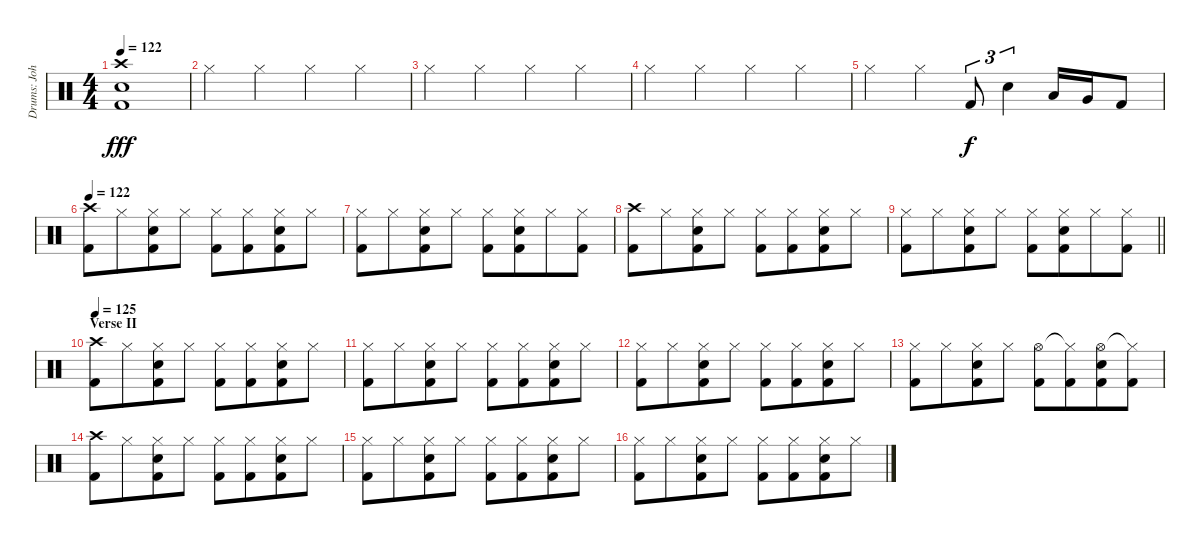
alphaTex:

\track ("Drums: John" "Drums: Joh") {instrument percussion}
\staff {score}
\articulation defaults
\ts (4 4)
\tempo 122
\clef neutral
\ks c
("Crash high (hit)" "Snare (hit) 2" "Kick (hit) 2").1{dy fff} |
"Hi-Hat (closed)".4 "Hi-Hat (closed)".4 "Hi-Hat (closed)".4 "Hi-Hat (closed)".4 |
"Hi-Hat (closed)".4 "Hi-Hat (closed)".4 "Hi-Hat (closed)".4 "Hi-Hat (closed)".4 |
"Hi-Hat (closed)".4 "Hi-Hat (closed)".4 "Hi-Hat (closed)".4 "Hi-Hat (closed)".4 |
"Hi-Hat (closed)".4 "Hi-Hat (closed)".4 "Kick (hit) 2".8{tu (3 2) dy f} "Electric Snare (hit)".4{tu (3 2)} "Low Tom (hit)".16 "Very Low Tom (hit)".16 "Kick (hit) 2".8 |
\tempo 122
("Crash high (hit)" "Kick (hit) 2").8 "Hi-Hat (closed)".8{beam merge} ("Hi-Hat (closed)" "Snare (hit) 2" "Kick (hit) 2").8 "Hi-Hat (closed)".8 ("Hi-Hat (closed)" "Kick (hit) 2").8 ("Hi-Hat (closed)" "Kick (hit) 2").8{beam merge} ("Hi-Hat (closed)" "Snare (hit) 2" "Kick (hit) 2").8 "Hi-Hat (closed)".8 |
("Hi-Hat (closed)" "Kick (hit) 2").8 "Hi-Hat (closed)".8{beam merge} ("Hi-Hat (closed)" "Snare (hit) 2" "Kick (hit) 2").8 "Hi-Hat (closed)".8 ("Hi-Hat (closed)" "Kick (hit) 2").8 ("Hi-Hat (closed)" "Snare (hit) 2" "Kick (hit) 2").8{beam merge} "Hi-Hat (closed)".8 ("Hi-Hat (closed)" "Kick (hit) 2").8 |
("Crash high (hit)" "Kick (hit) 2").8 "Hi-Hat (closed)".8{beam merge} ("Hi-Hat (closed)" "Snare (hit) 2" "Kick (hit) 2").8 "Hi-Hat (closed)".8 ("Hi-Hat (closed)" "Kick (hit) 2").8 ("Hi-Hat (closed)" "Kick (hit) 2").8{beam merge} ("Hi-Hat (closed)" "Snare (hit) 2" "Kick (hit) 2").8 "Hi-Hat (closed)".8 |
\barLineRight lightlight
("Hi-Hat (closed)" "Kick (hit) 2").8 "Hi-Hat (closed)".8{beam merge} ("Hi-Hat (closed)" "Snare (hit) 2" "Kick (hit) 2").8 "Hi-Hat (closed)".8 ("Hi-Hat (closed)" "Kick (hit) 2").8 ("Hi-Hat (closed)" "Snare (hit) 2" "Kick (hit) 2").8{beam merge} "Hi-Hat (closed)".8 ("Hi-Hat (closed)" "Kick (hit) 2").8 |
\section ("" "Verse II")
\tempo 125
("Crash high (hit)" "Kick (hit) 2").8 "Hi-Hat (closed)".8{beam merge} ("Hi-Hat (closed)" "Snare (hit) 2" "Kick (hit) 2").8 "Hi-Hat (closed)".8 ("Hi-Hat (closed)" "Kick (hit) 2").8 ("Hi-Hat (closed)" "Kick (hit) 2").8{beam merge} ("Hi-Hat (closed)" "Snare (hit) 2" "Kick (hit) 2").8 "Hi-Hat (closed)".8 |
("Hi-Hat (closed)" "Kick (hit) 2").8 "Hi-Hat (closed)".8{beam merge} ("Hi-Hat (closed)" "Snare (hit) 2" "Kick (hit) 2").8 "Hi-Hat (closed)".8 ("Hi-Hat (closed)" "Kick (hit) 2").8 ("Hi-Hat (closed)" "Kick (hit) 2").8{beam merge} ("Hi-Hat (closed)" "Snare (hit) 2" "Kick (hit) 2").8 "Hi-Hat (closed)".8 |
("Hi-Hat (closed)" "Kick (hit) 2").8 "Hi-Hat (closed)".8{beam merge} ("Hi-Hat (closed)" "Snare (hit) 2" "Kick (hit) 2").8 "Hi-Hat (closed)".8 ("Hi-Hat (closed)" "Kick (hit) 2").8 ("Hi-Hat (closed)" "Kick (hit) 2").8{beam merge} ("Hi-Hat (closed)" "Snare (hit) 2" "Kick (hit) 2").8 "Hi-Hat (closed)".8 |
("Hi-Hat (closed)" "Kick (hit) 2").8 "Hi-Hat (closed)".8{beam merge} ("Hi-Hat (closed)" "Snare (hit) 2" "Kick (hit) 2").8 "Hi-Hat (closed)".8 ("Hi-Hat (open)" "Kick (hit) 2").8 ("Hi-Hat (closed)"{t} "Kick (hit) 2").8{beam merge} ("Hi-Hat (open)" "Snare (hit) 2" "Kick (hit) 2").8 ("Hi-Hat (closed)"{t} "Kick (hit) 2").8 |
("Crash high (hit)" "Kick (hit) 2").8 "Hi-Hat (closed)".8{beam merge} ("Hi-Hat (closed)" "Snare (hit) 2" "Kick (hit) 2").8 "Hi-Hat (closed)".8 ("Hi-Hat (closed)" "Kick (hit) 2").8 ("Hi-Hat (closed)" "Kick (hit) 2").8{beam merge} ("Hi-Hat (closed)" "Snare (hit) 2" "Kick (hit) 2").8 "Hi-Hat (closed)".8 |
("Hi-Hat (closed)" "Kick (hit) 2").8 "Hi-Hat (closed)".8{beam merge} ("Hi-Hat (closed)" "Snare (hit) 2" "Kick (hit) 2").8 "Hi-Hat (closed)".8 ("Hi-Hat (closed)" "Kick (hit) 2").8 ("Hi-Hat (closed)" "Kick (hit) 2").8{beam merge} ("Hi-Hat (closed)" "Snare (hit) 2" "Kick (hit) 2").8 "Hi-Hat (closed)".8 |
("Hi-Hat (closed)" "Kick (hit) 2").8 "Hi-Hat (closed)".8{beam merge} ("Hi-Hat (closed)" "Snare (hit) 2" "Kick (hit) 2").8 "Hi-Hat (closed)".8 ("Hi-Hat (closed)" "Kick (hit) 2").8 ("Hi-Hat (closed)" "Kick (hit) 2").8{beam merge} ("Hi-Hat (closed)" "Snare (hit) 2" "Kick (hit) 2").8 "Hi-Hat (closed)".8
